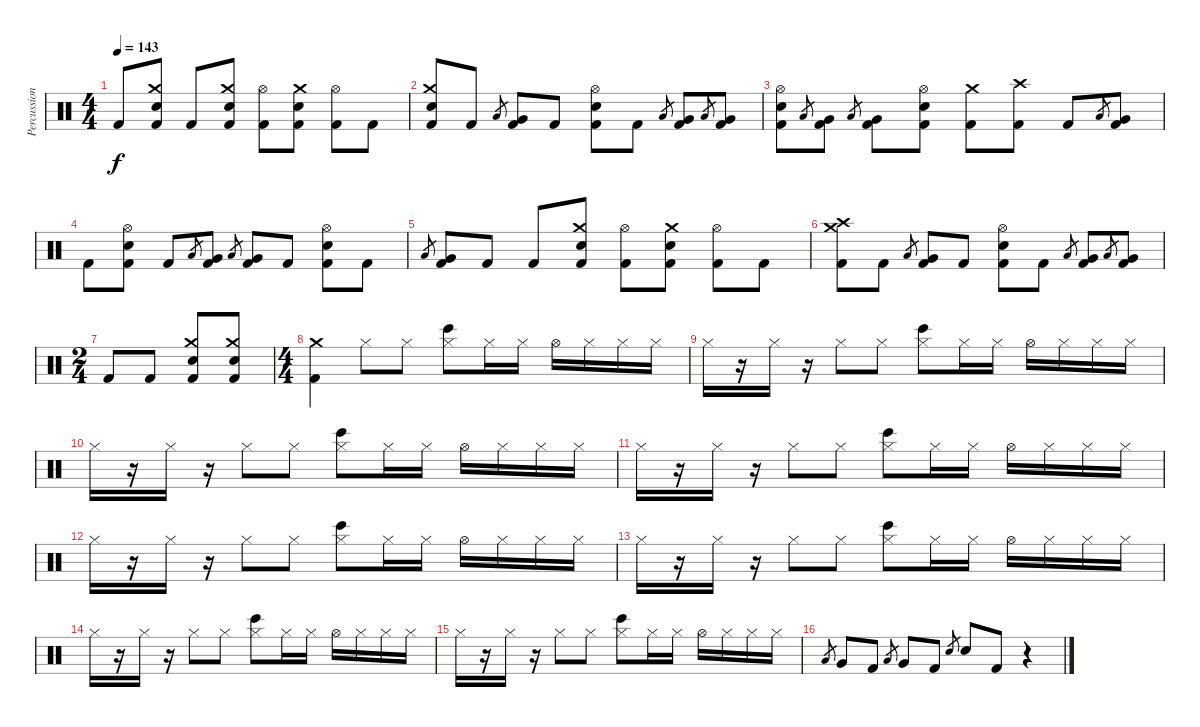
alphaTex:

\track ("Percussion" "Percussion") {instrument percussion}
\staff {score}
\articulation defaults
\ts (4 4)
\tempo 143
\clef neutral
\ks c "Kick (hit) 2".8{dy f}
("Crash medium (hit)" "Electric Snare (hit)" "Kick (hit) 2").8 "Kick (hit) 2".8 ("Crash medium (hit)" "Electric Snare (hit)" "Kick (hit) 2").8 ("Hi-Hat (open)" "Kick (hit) 2").8 ("Crash medium (hit)" "Electric Snare (hit)" "Kick (hit) 2").8 ("Hi-Hat (open)" "Kick (hit) 2").8 "Kick (hit) 2".8 |
("Crash medium (hit)" "Electric Snare (hit)" "Kick (hit) 2").8 "Kick (hit) 2".8 "Low Tom (hit)".8{gr} ("Very Low Tom (hit)" "Kick (hit) 2").8 "Kick (hit) 2".8 ("Hi-Hat (open)" "Electric Snare (hit)" "Kick (hit) 2").8 "Kick (hit) 2".8 "Low Tom (hit)".8{gr} ("Very Low Tom (hit)" "Kick (hit) 2").8 "Low Tom (hit)".8{gr} ("Very Low Tom (hit)" "Kick (hit) 2").8 |
("Hi-Hat (open)" "Electric Snare (hit)" "Kick (hit) 2").8 "Low Tom (hit)".8{gr} ("Very Low Tom (hit)" "Kick (hit) 2").8 "Low Tom (hit)".8{gr} ("Very Low Tom (hit)" "Kick (hit) 2").8 ("Hi-Hat (open)" "Electric Snare (hit)" "Kick (hit) 2").8 ("Crash medium (hit)" "Kick (hit) 2").8 ("Crash high (hit)" "Kick (hit) 2").8 "Kick (hit) 2".8 "Low Tom (hit)".8{gr} ("Very Low Tom (hit)" "Kick (hit) 2").8 |
"Kick (hit) 2".8 ("Hi-Hat (open)" "Electric Snare (hit)" "Kick (hit) 2").8 "Kick (hit) 2".8 "Low Tom (hit)".8{gr} ("Very Low Tom (hit)" "Kick (hit) 2").8 "Low Tom (hit)".8{gr} ("Very Low Tom (hit)" "Kick (hit) 2").8 "Kick (hit) 2".8 ("Hi-Hat (open)" "Electric Snare (hit)" "Kick (hit) 2").8 "Kick (hit) 2".8 |
"Low Tom (hit)".8{gr} ("Very Low Tom (hit)" "Kick (hit) 2").8 "Kick (hit) 2".8 "Kick (hit) 2".8 ("Crash medium (hit)" "Electric Snare (hit)" "Kick (hit) 2").8 ("Hi-Hat (open)" "Kick (hit) 2").8 ("Crash medium (hit)" "Electric Snare (hit)" "Kick (hit) 2").8 ("Hi-Hat (open)" "Kick (hit) 2").8 "Kick (hit) 2".8 |
("Crash medium (hit)" "Crash high (hit)" "Kick (hit) 2").8 "Kick (hit) 2".8 "Low Tom (hit)".8{gr} ("Very Low Tom (hit)" "Kick (hit) 2").8 "Kick (hit) 2".8 ("Hi-Hat (open)" "Electric Snare (hit)" "Kick (hit) 2").8 "Kick (hit) 2".8 "Low Tom (hit)".8{gr} ("Very Low Tom (hit)" "Kick (hit) 2").8 "Low Tom (hit)".8{gr} ("Very Low Tom (hit)" "Kick (hit) 2").8 |
\ts (2 4)
"Kick (hit) 2".8 "Kick (hit) 2".8 ("Crash medium (hit)" "Electric Snare (hit)" "Kick (hit) 2").8 ("Crash medium (hit)" "Electric Snare (hit)" "Kick (hit) 2").8 |
\ts (4 4)
("Crash medium (hit)" "Kick (hit) 2").4 "Hi-Hat (closed)".8 "Hi-Hat (closed)".8 ("Hi-Hat (closed)" "Bongo High (hit)").8 "Hi-Hat (closed)".16 "Hi-Hat (closed)".16 "Hi-Hat (open)".16 "Hi-Hat (closed)".16 "Hi-Hat (closed)".16 "Hi-Hat (closed)".16 |
"Hi-Hat (closed)".16 r.16 "Hi-Hat (closed)".16 r.16 "Hi-Hat (closed)".8 "Hi-Hat (closed)".8 ("Hi-Hat (closed)" "Bongo High (hit)").8 "Hi-Hat (closed)".16 "Hi-Hat (closed)".16 "Hi-Hat (open)".16 "Hi-Hat (closed)".16 "Hi-Hat (closed)".16 "Hi-Hat (closed)".16 |
"Hi-Hat (closed)".16 r.16 "Hi-Hat (closed)".16 r.16 "Hi-Hat (closed)".8 "Hi-Hat (closed)".8 ("Hi-Hat (closed)" "Bongo High (hit)").8 "Hi-Hat (closed)".16 "Hi-Hat (closed)".16 "Hi-Hat (open)".16 "Hi-Hat (closed)".16 "Hi-Hat (closed)".16 "Hi-Hat (closed)".16 |
"Hi-Hat (closed)".16 r.16 "Hi-Hat (closed)".16 r.16 "Hi-Hat (closed)".8 "Hi-Hat (closed)".8 ("Hi-Hat (closed)" "Bongo High (hit)").8 "Hi-Hat (closed)".16 "Hi-Hat (closed)".16 "Hi-Hat (open)".16 "Hi-Hat (closed)".16 "Hi-Hat (closed)".16 "Hi-Hat (closed)".16 |
"Hi-Hat (closed)".16 r.16 "Hi-Hat (closed)".16 r.16 "Hi-Hat (closed)".8 "Hi-Hat (closed)".8 ("Hi-Hat (closed)" "Bongo High (hit)").8 "Hi-Hat (closed)".16 "Hi-Hat (closed)".16 "Hi-Hat (open)".16 "Hi-Hat (closed)".16 "Hi-Hat (closed)".16 "Hi-Hat (closed)".16 |
"Hi-Hat (closed)".16 r.16 "Hi-Hat (closed)".16 r.16 "Hi-Hat (closed)".8 "Hi-Hat (closed)".8 ("Hi-Hat (closed)" "Bongo High (hit)").8 "Hi-Hat (closed)".16 "Hi-Hat (closed)".16 "Hi-Hat (open)".16 "Hi-Hat (closed)".16 "Hi-Hat (closed)".16 "Hi-Hat (closed)".16 |
"Hi-Hat (closed)".16 r.16 "Hi-Hat (closed)".16 r.16 "Hi-Hat (closed)".8 "Hi-Hat (closed)".8 ("Hi-Hat (closed)" "Bongo High (hit)").8 "Hi-Hat (closed)".16 "Hi-Hat (closed)".16 "Hi-Hat (open)".16 "Hi-Hat (closed)".16 "Hi-Hat (closed)".16 "Hi-Hat (closed)".16 |
"Hi-Hat (closed)".16 r.16 "Hi-Hat (closed)".16 r.16 "Hi-Hat (closed)".8 "Hi-Hat (closed)".8 ("Hi-Hat (closed)" "Bongo High (hit)").8 "Hi-Hat (closed)".16 "Hi-Hat (closed)".16 "Hi-Hat (open)".16 "Hi-Hat (closed)".16 "Hi-Hat (closed)".16 "Hi-Hat (closed)".16 |
"Low Tom (hit)".8{gr} "Very Low Tom (hit)".8 "Kick (hit) 2".8 "Low Tom (hit)".8{gr} "Very Low Tom (hit)".8 "Kick (hit) 2".8 "Electric Snare (hit)".8{gr} "Electric Snare (hit)".8 "Kick (hit) 2".8 r.4
